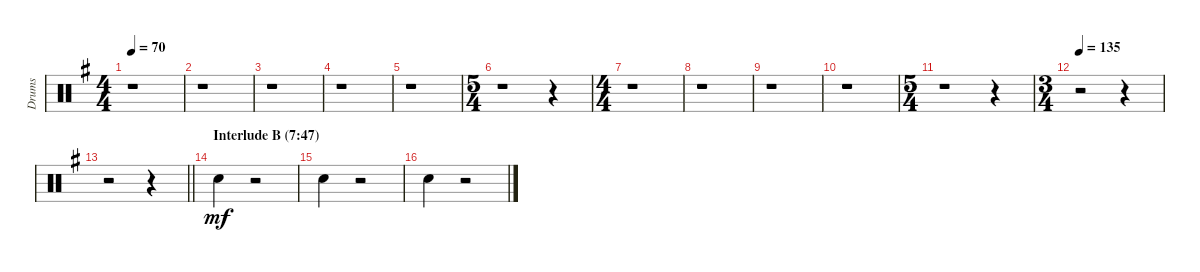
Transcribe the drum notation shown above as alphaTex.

\track ("Drums" "Drums") {instrument percussion}
\staff {score}
\articulation defaults
\ts (4 4)
\tempo 70
\clef neutral
\ks eminor
r.1{dy f} |
r.1 |
r.1 |
r.1 |
r.1 |
\ts (5 4)
r.1 r.4 |
\ts (4 4)
r.1 |
r.1 |
r.1 |
r.1 |
\ts (5 4)
r.1 r.4 |
\ts (3 4)
\tempo 135
r.2 r.4 |
\barLineRight lightlight
r.2 r.4 |
\section ("" "Interlude B (7:47)")
"Snare (hit) 2".4{dy mf} r.2 |
"Snare (hit) 2".4 r.2 |
"Snare (hit) 2".4 r.2
